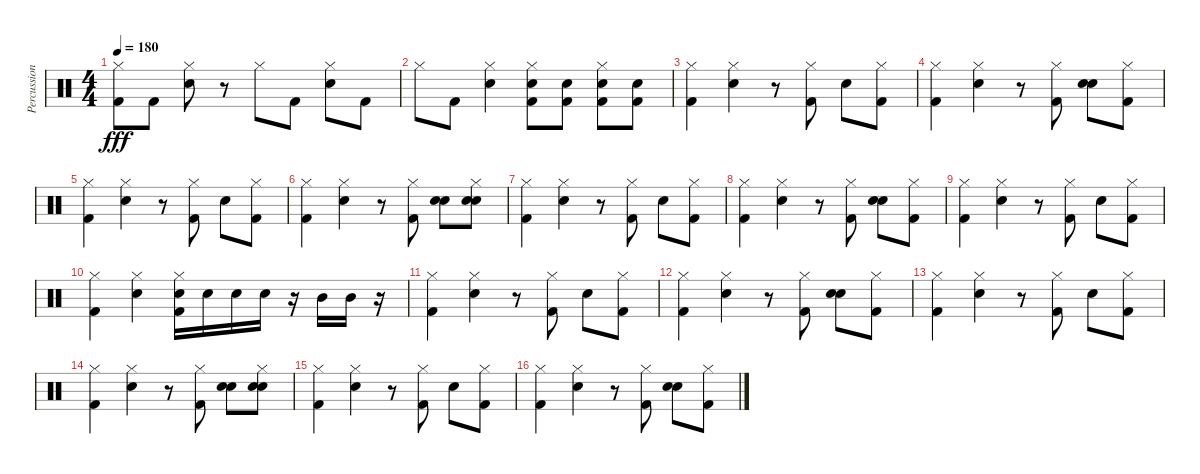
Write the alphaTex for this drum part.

\track ("Percussion" "Percussion") {instrument percussion}
\staff {score}
\articulation defaults
\ts (4 4)
\tempo 180
\clef neutral
\ks c
("Hi-Hat (closed)" "Kick (hit) 2").8{dy fff} "Kick (hit) 2".8 ("Hi-Hat (closed)" "Snare (hit) 2").8 r.8 "Hi-Hat (closed)".8 "Kick (hit) 2".8 ("Hi-Hat (closed)" "Snare (hit) 2").8 "Kick (hit) 2".8 |
"Hi-Hat (closed)".8 "Kick (hit) 2".8 ("Hi-Hat (closed)" "Snare (hit) 2").4 ("Hi-Hat (closed)" "Snare (hit) 2" "Kick (hit) 2").8 ("Snare (hit) 2" "Kick (hit) 2").8 ("Hi-Hat (closed)" "Snare (hit) 2" "Kick (hit) 2").8 ("Snare (hit) 2" "Kick (hit) 2").8 |
("Hi-Hat (closed)" "Kick (hit) 2").4 ("Hi-Hat (closed)" "Snare (hit) 2").4 r.8 ("Hi-Hat (closed)" "Kick (hit) 2").8 "Snare (hit) 2".8 ("Hi-Hat (closed)" "Kick (hit) 2").8 |
("Hi-Hat (closed)" "Kick (hit) 2").4 ("Hi-Hat (closed)" "Snare (hit) 2").4 r.8 ("Hi-Hat (closed)" "Kick (hit) 2").8 ("Snare (hit) 2" "Snare (hit) 2").8 ("Hi-Hat (closed)" "Kick (hit) 2").8 |
("Hi-Hat (closed)" "Kick (hit) 2").4 ("Hi-Hat (closed)" "Snare (hit) 2").4 r.8 ("Hi-Hat (closed)" "Kick (hit) 2").8 "Snare (hit) 2".8 ("Hi-Hat (closed)" "Kick (hit) 2").8 |
("Hi-Hat (closed)" "Kick (hit) 2").4 ("Hi-Hat (closed)" "Snare (hit) 2").4 r.8 ("Hi-Hat (closed)" "Kick (hit) 2").8 ("Snare (hit) 2" "Snare (hit) 2").8 ("Hi-Hat (closed)" "Snare (hit) 2" "Snare (hit) 2").8 |
("Hi-Hat (closed)" "Kick (hit) 2").4 ("Hi-Hat (closed)" "Snare (hit) 2").4 r.8 ("Hi-Hat (closed)" "Kick (hit) 2").8 "Snare (hit) 2".8 ("Hi-Hat (closed)" "Kick (hit) 2").8 |
("Hi-Hat (closed)" "Kick (hit) 2").4 ("Hi-Hat (closed)" "Snare (hit) 2").4 r.8 ("Hi-Hat (closed)" "Kick (hit) 2").8 ("Snare (hit) 2" "Snare (hit) 2").8 ("Hi-Hat (closed)" "Kick (hit) 2").8 |
("Hi-Hat (closed)" "Kick (hit) 2").4 ("Hi-Hat (closed)" "Snare (hit) 2").4 r.8 ("Hi-Hat (closed)" "Kick (hit) 2").8 "Snare (hit) 2".8 ("Hi-Hat (closed)" "Kick (hit) 2").8 |
("Hi-Hat (closed)" "Kick (hit) 2").4 ("Hi-Hat (closed)" "Snare (hit) 2").4 ("Hi-Hat (closed)" "Snare (hit) 2" "Kick (hit) 2").16 "Snare (hit) 2".16 "Snare (hit) 2".16 "Snare (hit) 2".16 r.16 "Mid Tom (hit)".16 "Mid Tom (hit)".16 r.16 |
("Hi-Hat (closed)" "Kick (hit) 2").4 ("Hi-Hat (closed)" "Snare (hit) 2").4 r.8 ("Hi-Hat (closed)" "Kick (hit) 2").8 "Snare (hit) 2".8 ("Hi-Hat (closed)" "Kick (hit) 2").8 |
("Hi-Hat (closed)" "Kick (hit) 2").4 ("Hi-Hat (closed)" "Snare (hit) 2").4 r.8 ("Hi-Hat (closed)" "Kick (hit) 2").8 ("Snare (hit) 2" "Snare (hit) 2").8 ("Hi-Hat (closed)" "Kick (hit) 2").8 |
("Hi-Hat (closed)" "Kick (hit) 2").4 ("Hi-Hat (closed)" "Snare (hit) 2").4 r.8 ("Hi-Hat (closed)" "Kick (hit) 2").8 "Snare (hit) 2".8 ("Hi-Hat (closed)" "Kick (hit) 2").8 |
("Hi-Hat (closed)" "Kick (hit) 2").4 ("Hi-Hat (closed)" "Snare (hit) 2").4 r.8 ("Hi-Hat (closed)" "Kick (hit) 2").8 ("Snare (hit) 2" "Snare (hit) 2").8 ("Hi-Hat (closed)" "Snare (hit) 2" "Snare (hit) 2").8 |
("Hi-Hat (closed)" "Kick (hit) 2").4 ("Hi-Hat (closed)" "Snare (hit) 2").4 r.8 ("Hi-Hat (closed)" "Kick (hit) 2").8 "Snare (hit) 2".8 ("Hi-Hat (closed)" "Kick (hit) 2").8 |
("Hi-Hat (closed)" "Kick (hit) 2").4 ("Hi-Hat (closed)" "Snare (hit) 2").4 r.8 ("Hi-Hat (closed)" "Kick (hit) 2").8 ("Snare (hit) 2" "Snare (hit) 2").8 ("Hi-Hat (closed)" "Kick (hit) 2").8
